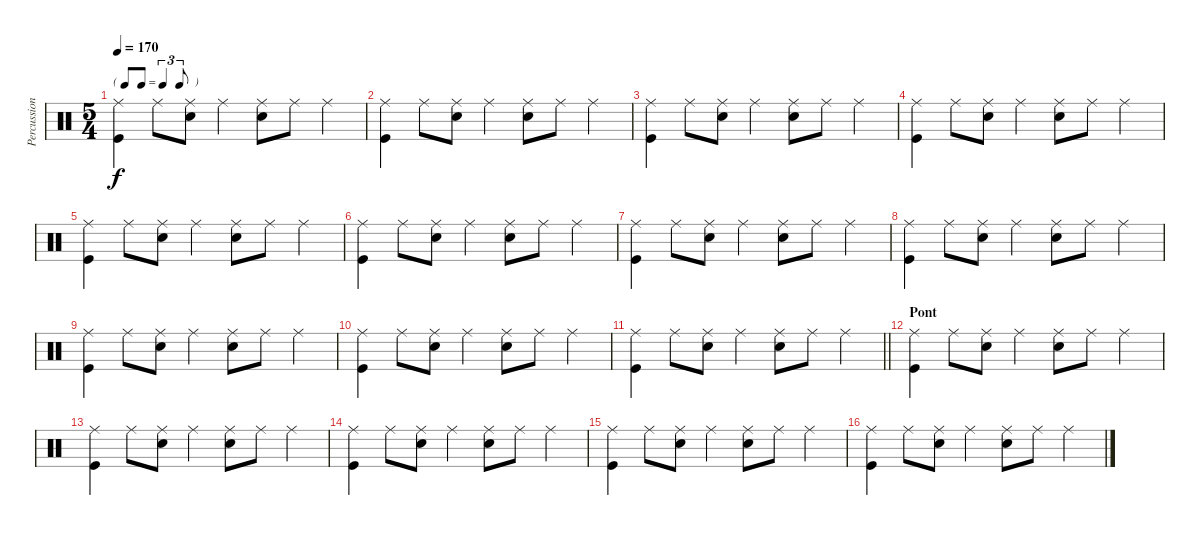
\track ("Percussions" "Percussion") {instrument percussion}
\staff {score}
\articulation defaults
\ts (5 4)
\tf triplet8th
\tempo 170
\clef neutral
\ks c
("Ride (middle)" "Kick (hit)").4{dy f} "Ride (middle)".8 ("Ride (middle)" "Snare (hit) 2").8 "Ride (middle)".4 ("Ride (middle)" "Snare (hit) 2").8 "Ride (middle)".8 "Ride (middle)".4 |
("Ride (middle)" "Kick (hit)").4 "Ride (middle)".8 ("Ride (middle)" "Snare (hit) 2").8 "Ride (middle)".4 ("Ride (middle)" "Snare (hit) 2").8 "Ride (middle)".8 "Ride (middle)".4 |
("Ride (middle)" "Kick (hit)").4 "Ride (middle)".8 ("Ride (middle)" "Snare (hit) 2").8 "Ride (middle)".4 ("Ride (middle)" "Snare (hit) 2").8 "Ride (middle)".8 "Ride (middle)".4 |
("Ride (middle)" "Kick (hit)").4 "Ride (middle)".8 ("Ride (middle)" "Snare (hit) 2").8 "Ride (middle)".4 ("Ride (middle)" "Snare (hit) 2").8 "Ride (middle)".8 "Ride (middle)".4 |
("Ride (middle)" "Kick (hit)").4 "Ride (middle)".8 ("Ride (middle)" "Snare (hit) 2").8 "Ride (middle)".4 ("Ride (middle)" "Snare (hit) 2").8 "Ride (middle)".8 "Ride (middle)".4 |
("Ride (middle)" "Kick (hit)").4 "Ride (middle)".8 ("Ride (middle)" "Snare (hit) 2").8 "Ride (middle)".4 ("Ride (middle)" "Snare (hit) 2").8 "Ride (middle)".8 "Ride (middle)".4 |
("Ride (middle)" "Kick (hit)").4 "Ride (middle)".8 ("Ride (middle)" "Snare (hit) 2").8 "Ride (middle)".4 ("Ride (middle)" "Snare (hit) 2").8 "Ride (middle)".8 "Ride (middle)".4 |
("Ride (middle)" "Kick (hit)").4 "Ride (middle)".8 ("Ride (middle)" "Snare (hit) 2").8 "Ride (middle)".4 ("Ride (middle)" "Snare (hit) 2").8 "Ride (middle)".8 "Ride (middle)".4 |
("Ride (middle)" "Kick (hit)").4 "Ride (middle)".8 ("Ride (middle)" "Snare (hit) 2").8 "Ride (middle)".4 ("Ride (middle)" "Snare (hit) 2").8 "Ride (middle)".8 "Ride (middle)".4 |
("Ride (middle)" "Kick (hit)").4 "Ride (middle)".8 ("Ride (middle)" "Snare (hit) 2").8 "Ride (middle)".4 ("Ride (middle)" "Snare (hit) 2").8 "Ride (middle)".8 "Ride (middle)".4 |
\barLineRight lightlight
("Ride (middle)" "Kick (hit)").4 "Ride (middle)".8 ("Ride (middle)" "Snare (hit) 2").8 "Ride (middle)".4 ("Ride (middle)" "Snare (hit) 2").8 "Ride (middle)".8 "Ride (middle)".4 |
\section ("" "Pont")
("Ride (middle)" "Kick (hit)").4 "Ride (middle)".8 ("Ride (middle)" "Snare (hit) 2").8 "Ride (middle)".4 ("Ride (middle)" "Snare (hit) 2").8 "Ride (middle)".8 "Ride (middle)".4 |
("Ride (middle)" "Kick (hit)").4 "Ride (middle)".8 ("Ride (middle)" "Snare (hit) 2").8 "Ride (middle)".4 ("Ride (middle)" "Snare (hit) 2").8 "Ride (middle)".8 "Ride (middle)".4 |
("Ride (middle)" "Kick (hit)").4 "Ride (middle)".8 ("Ride (middle)" "Snare (hit) 2").8 "Ride (middle)".4 ("Ride (middle)" "Snare (hit) 2").8 "Ride (middle)".8 "Ride (middle)".4 |
("Ride (middle)" "Kick (hit)").4 "Ride (middle)".8 ("Ride (middle)" "Snare (hit) 2").8 "Ride (middle)".4 ("Ride (middle)" "Snare (hit) 2").8 "Ride (middle)".8 "Ride (middle)".4 |
("Ride (middle)" "Kick (hit)").4 "Ride (middle)".8 ("Ride (middle)" "Snare (hit) 2").8 "Ride (middle)".4 ("Ride (middle)" "Snare (hit) 2").8 "Ride (middle)".8 "Ride (middle)".4
